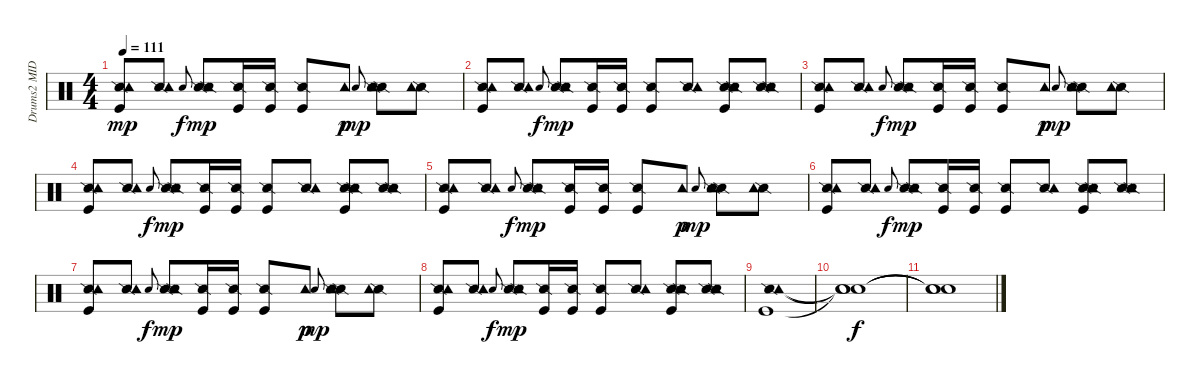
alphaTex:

\track ("Drums2 MIDI" "Drums2 MID") {instrument percussion}
\staff {score}
\articulation defaults
\ts (4 4)
\tempo 111
\clef neutral
\ks c
("Snare (side stick) 2" "Tambourine (hit)" "Kick (hit)").8{dy mp} ("Snare (side stick) 2" "Tambourine (hit)").8 "Snare (hit)".8{gr onbeat dy f} ("Snare (side stick) 2" "Tambourine (hit)" "Snare (side stick) 2").8{dy mp} ("Snare (side stick) 2" "Kick (hit)").16 ("Snare (side stick) 2" "Kick (hit)").16 ("Snare (side stick) 2" "Kick (hit)").8 "Tambourine (hit)".8{dy p} "Snare (hit)".8{gr onbeat dy mp} ("Snare (side stick) 2" "Tambourine (hit)" "Snare (side stick) 2").8 ("Snare (side stick) 2" "Tambourine (hit)").8 |
("Snare (side stick) 2" "Tambourine (hit)" "Kick (hit)").8 ("Snare (side stick) 2" "Tambourine (hit)").8 "Snare (hit)".8{gr onbeat dy f} ("Snare (side stick) 2" "Tambourine (hit)" "Snare (side stick) 2").8{dy mp} ("Snare (side stick) 2" "Kick (hit)").16 ("Snare (side stick) 2" "Kick (hit)").16 ("Snare (side stick) 2" "Kick (hit)").8 ("Snare (side stick) 2" "Tambourine (hit)").8 ("Snare (side stick) 2" "Tambourine (hit)" "Kick (hit)" "Snare (side stick) 2").8 ("Snare (side stick) 2" "Tambourine (hit)" "Snare (side stick) 2").8 |
("Snare (side stick) 2" "Tambourine (hit)" "Kick (hit)").8{volume 5} ("Snare (side stick) 2" "Tambourine (hit)").8 "Snare (hit)".8{gr onbeat dy f} ("Snare (side stick) 2" "Tambourine (hit)" "Snare (side stick) 2").8{dy mp} ("Snare (side stick) 2" "Kick (hit)").16 ("Snare (side stick) 2" "Kick (hit)").16 ("Snare (side stick) 2" "Kick (hit)").8 "Tambourine (hit)".8{dy p} "Snare (hit)".8{gr onbeat dy mp} ("Snare (side stick) 2" "Tambourine (hit)" "Snare (side stick) 2").8 ("Snare (side stick) 2" "Tambourine (hit)").8 |
("Snare (side stick) 2" "Tambourine (hit)" "Kick (hit)").8 ("Snare (side stick) 2" "Tambourine (hit)").8 "Snare (hit)".8{gr onbeat dy f} ("Snare (side stick) 2" "Tambourine (hit)" "Snare (side stick) 2").8{dy mp} ("Snare (side stick) 2" "Kick (hit)").16 ("Snare (side stick) 2" "Kick (hit)").16 ("Snare (side stick) 2" "Kick (hit)").8 ("Snare (side stick) 2" "Tambourine (hit)").8 ("Snare (side stick) 2" "Tambourine (hit)" "Kick (hit)" "Snare (side stick) 2").8 ("Snare (side stick) 2" "Tambourine (hit)" "Snare (side stick) 2").8 |
("Snare (side stick) 2" "Tambourine (hit)" "Kick (hit)").8 ("Snare (side stick) 2" "Tambourine (hit)").8 "Snare (hit)".8{gr onbeat dy f} ("Snare (side stick) 2" "Tambourine (hit)" "Snare (side stick) 2").8{dy mp} ("Snare (side stick) 2" "Kick (hit)").16 ("Snare (side stick) 2" "Kick (hit)").16 ("Snare (side stick) 2" "Kick (hit)").8 "Tambourine (hit)".8{dy p} "Snare (hit)".8{gr onbeat dy mp} ("Snare (side stick) 2" "Tambourine (hit)" "Snare (side stick) 2").8 ("Snare (side stick) 2" "Tambourine (hit)").8 |
("Snare (side stick) 2" "Tambourine (hit)" "Kick (hit)").8 ("Snare (side stick) 2" "Tambourine (hit)").8 "Snare (hit)".8{gr onbeat dy f} ("Snare (side stick) 2" "Tambourine (hit)" "Snare (side stick) 2").8{dy mp} ("Snare (side stick) 2" "Kick (hit)").16 ("Snare (side stick) 2" "Kick (hit)").16 ("Snare (side stick) 2" "Kick (hit)").8 ("Snare (side stick) 2" "Tambourine (hit)").8 ("Snare (side stick) 2" "Tambourine (hit)" "Kick (hit)" "Snare (side stick) 2").8 ("Snare (side stick) 2" "Tambourine (hit)" "Snare (side stick) 2").8 |
("Snare (side stick) 2" "Tambourine (hit)" "Kick (hit)").8 ("Snare (side stick) 2" "Tambourine (hit)").8 "Snare (hit)".8{gr onbeat dy f} ("Snare (side stick) 2" "Tambourine (hit)" "Snare (side stick) 2").8{dy mp} ("Snare (side stick) 2" "Kick (hit)").16 ("Snare (side stick) 2" "Kick (hit)").16 ("Snare (side stick) 2" "Kick (hit)").8 "Tambourine (hit)".8{dy p} "Snare (hit)".8{gr onbeat dy mp} ("Snare (side stick) 2" "Tambourine (hit)" "Snare (side stick) 2").8 ("Snare (side stick) 2" "Tambourine (hit)").8 |
("Snare (side stick) 2" "Tambourine (hit)" "Kick (hit)").8 ("Snare (side stick) 2" "Tambourine (hit)").8 "Snare (hit)".8{gr onbeat dy f} ("Snare (side stick) 2" "Tambourine (hit)" "Snare (side stick) 2").8{dy mp} ("Snare (side stick) 2" "Kick (hit)").16 ("Snare (side stick) 2" "Kick (hit)").16 ("Snare (side stick) 2" "Kick (hit)").8 ("Snare (side stick) 2" "Tambourine (hit)").8 ("Snare (side stick) 2" "Tambourine (hit)" "Kick (hit)" "Snare (side stick) 2").8 ("Snare (side stick) 2" "Tambourine (hit)" "Snare (side stick) 2").8 |
("Snare (side stick) 2" "Tambourine (hit)" "Kick (hit)").1 |
("Snare (hit)"{t} "Snare (hit)"{t} "Snare (hit)"{t}).1{dy f} |
("Snare (hit)"{t} "Snare (hit)"{t} "Snare (hit)"{t}).1
